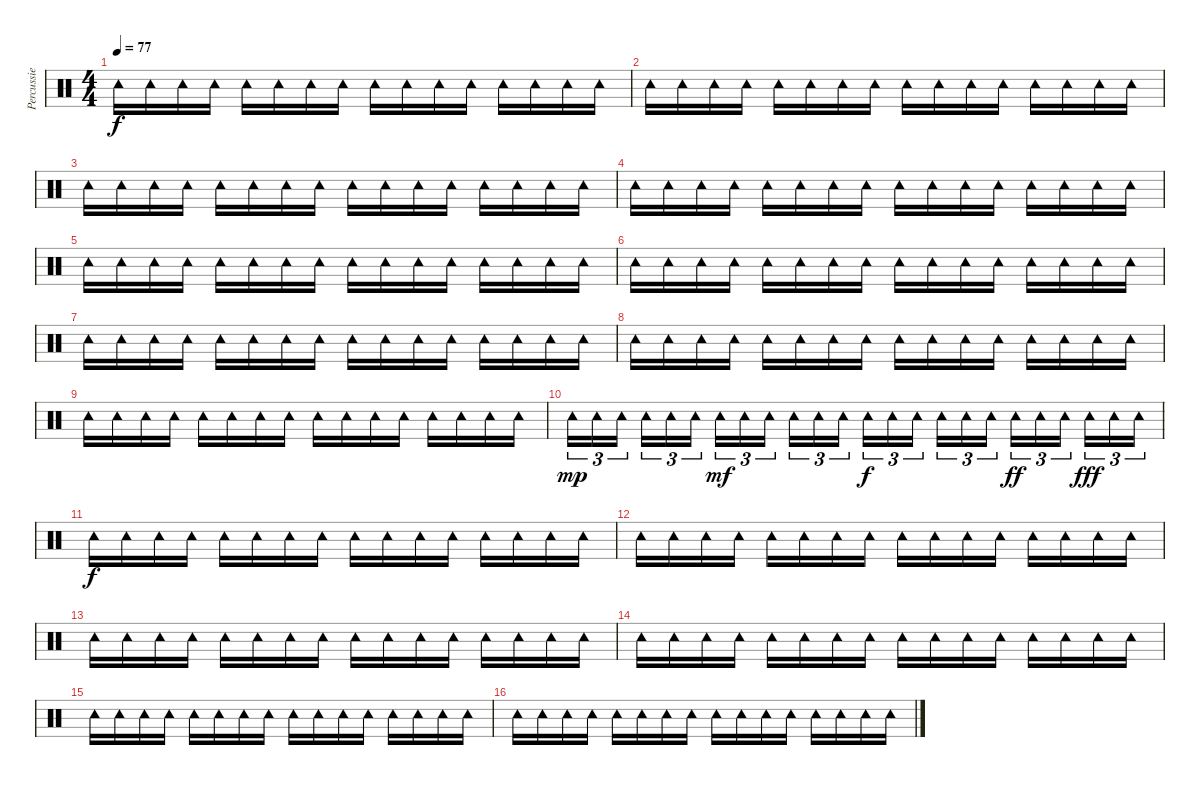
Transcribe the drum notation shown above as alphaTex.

\track ("Percussie" "Percussie") {instrument percussion}
\staff {score}
\articulation defaults
\ts (4 4)
\tempo 77
\clef neutral
\ks c "Tambourine (hit)".16{dy f} "Tambourine (hit)".16 "Tambourine (hit)".16 "Tambourine (hit)".16 "Tambourine (hit)".16 "Tambourine (hit)".16 "Tambourine (hit)".16 "Tambourine (hit)".16 "Tambourine (hit)".16 "Tambourine (hit)".16 "Tambourine (hit)".16 "Tambourine (hit)".16 "Tambourine (hit)".16 "Tambourine (hit)".16 "Tambourine (hit)".16 "Tambourine (hit)".16
|
"Tambourine (hit)".16 "Tambourine (hit)".16 "Tambourine (hit)".16 "Tambourine (hit)".16 "Tambourine (hit)".16 "Tambourine (hit)".16 "Tambourine (hit)".16 "Tambourine (hit)".16 "Tambourine (hit)".16 "Tambourine (hit)".16 "Tambourine (hit)".16 "Tambourine (hit)".16 "Tambourine (hit)".16 "Tambourine (hit)".16 "Tambourine (hit)".16 "Tambourine (hit)".16 |
"Tambourine (hit)".16 "Tambourine (hit)".16 "Tambourine (hit)".16 "Tambourine (hit)".16 "Tambourine (hit)".16 "Tambourine (hit)".16 "Tambourine (hit)".16 "Tambourine (hit)".16 "Tambourine (hit)".16 "Tambourine (hit)".16 "Tambourine (hit)".16 "Tambourine (hit)".16 "Tambourine (hit)".16 "Tambourine (hit)".16 "Tambourine (hit)".16 "Tambourine (hit)".16 |
"Tambourine (hit)".16 "Tambourine (hit)".16 "Tambourine (hit)".16 "Tambourine (hit)".16 "Tambourine (hit)".16 "Tambourine (hit)".16 "Tambourine (hit)".16 "Tambourine (hit)".16 "Tambourine (hit)".16 "Tambourine (hit)".16 "Tambourine (hit)".16 "Tambourine (hit)".16 "Tambourine (hit)".16 "Tambourine (hit)".16 "Tambourine (hit)".16 "Tambourine (hit)".16 |
"Tambourine (hit)".16 "Tambourine (hit)".16 "Tambourine (hit)".16 "Tambourine (hit)".16 "Tambourine (hit)".16 "Tambourine (hit)".16 "Tambourine (hit)".16 "Tambourine (hit)".16 "Tambourine (hit)".16 "Tambourine (hit)".16 "Tambourine (hit)".16 "Tambourine (hit)".16 "Tambourine (hit)".16 "Tambourine (hit)".16 "Tambourine (hit)".16 "Tambourine (hit)".16 |
"Tambourine (hit)".16 "Tambourine (hit)".16 "Tambourine (hit)".16 "Tambourine (hit)".16 "Tambourine (hit)".16 "Tambourine (hit)".16 "Tambourine (hit)".16 "Tambourine (hit)".16 "Tambourine (hit)".16 "Tambourine (hit)".16 "Tambourine (hit)".16 "Tambourine (hit)".16 "Tambourine (hit)".16 "Tambourine (hit)".16 "Tambourine (hit)".16 "Tambourine (hit)".16 |
"Tambourine (hit)".16 "Tambourine (hit)".16 "Tambourine (hit)".16 "Tambourine (hit)".16 "Tambourine (hit)".16 "Tambourine (hit)".16 "Tambourine (hit)".16 "Tambourine (hit)".16 "Tambourine (hit)".16 "Tambourine (hit)".16 "Tambourine (hit)".16 "Tambourine (hit)".16 "Tambourine (hit)".16 "Tambourine (hit)".16 "Tambourine (hit)".16 "Tambourine (hit)".16 |
"Tambourine (hit)".16 "Tambourine (hit)".16 "Tambourine (hit)".16 "Tambourine (hit)".16 "Tambourine (hit)".16 "Tambourine (hit)".16 "Tambourine (hit)".16 "Tambourine (hit)".16 "Tambourine (hit)".16 "Tambourine (hit)".16 "Tambourine (hit)".16 "Tambourine (hit)".16 "Tambourine (hit)".16 "Tambourine (hit)".16 "Tambourine (hit)".16 "Tambourine (hit)".16 |
"Tambourine (hit)".16 "Tambourine (hit)".16 "Tambourine (hit)".16 "Tambourine (hit)".16 "Tambourine (hit)".16 "Tambourine (hit)".16 "Tambourine (hit)".16 "Tambourine (hit)".16 "Tambourine (hit)".16 "Tambourine (hit)".16 "Tambourine (hit)".16 "Tambourine (hit)".16 "Tambourine (hit)".16 "Tambourine (hit)".16 "Tambourine (hit)".16 "Tambourine (hit)".16 |
"Tambourine (hit)".16{tu (3 2) dy mp} "Tambourine (hit)".16{tu (3 2)} "Tambourine (hit)".16{tu (3 2) beam splitsecondary} "Tambourine (hit)".16{tu (3 2)} "Tambourine (hit)".16{tu (3 2)} "Tambourine (hit)".16{tu (3 2)} "Tambourine (hit)".16{tu (3 2) dy mf} "Tambourine (hit)".16{tu (3 2)} "Tambourine (hit)".16{tu (3 2) beam splitsecondary} "Tambourine (hit)".16{tu (3 2)} "Tambourine (hit)".16{tu (3 2)} "Tambourine (hit)".16{tu (3 2)} "Tambourine (hit)".16{tu (3 2) dy f} "Tambourine (hit)".16{tu (3 2)} "Tambourine (hit)".16{tu (3 2) beam splitsecondary} "Tambourine (hit)".16{tu (3 2)} "Tambourine (hit)".16{tu (3 2)} "Tambourine (hit)".16{tu (3 2)} "Tambourine (hit)".16{tu (3 2) dy ff} "Tambourine (hit)".16{tu (3 2)} "Tambourine (hit)".16{tu (3 2) beam splitsecondary} "Tambourine (hit)".16{tu (3 2) dy fff} "Tambourine (hit)".16{tu (3 2)} "Tambourine (hit)".16{tu (3 2)} |
"Tambourine (hit)".16{dy f} "Tambourine (hit)".16 "Tambourine (hit)".16 "Tambourine (hit)".16 "Tambourine (hit)".16 "Tambourine (hit)".16 "Tambourine (hit)".16 "Tambourine (hit)".16 "Tambourine (hit)".16 "Tambourine (hit)".16 "Tambourine (hit)".16 "Tambourine (hit)".16 "Tambourine (hit)".16 "Tambourine (hit)".16 "Tambourine (hit)".16 "Tambourine (hit)".16 |
"Tambourine (hit)".16 "Tambourine (hit)".16 "Tambourine (hit)".16 "Tambourine (hit)".16 "Tambourine (hit)".16 "Tambourine (hit)".16 "Tambourine (hit)".16 "Tambourine (hit)".16 "Tambourine (hit)".16 "Tambourine (hit)".16 "Tambourine (hit)".16 "Tambourine (hit)".16 "Tambourine (hit)".16 "Tambourine (hit)".16 "Tambourine (hit)".16 "Tambourine (hit)".16 |
"Tambourine (hit)".16 "Tambourine (hit)".16 "Tambourine (hit)".16 "Tambourine (hit)".16 "Tambourine (hit)".16 "Tambourine (hit)".16 "Tambourine (hit)".16 "Tambourine (hit)".16 "Tambourine (hit)".16 "Tambourine (hit)".16 "Tambourine (hit)".16 "Tambourine (hit)".16 "Tambourine (hit)".16 "Tambourine (hit)".16 "Tambourine (hit)".16 "Tambourine (hit)".16 |
"Tambourine (hit)".16 "Tambourine (hit)".16 "Tambourine (hit)".16 "Tambourine (hit)".16 "Tambourine (hit)".16 "Tambourine (hit)".16 "Tambourine (hit)".16 "Tambourine (hit)".16 "Tambourine (hit)".16 "Tambourine (hit)".16 "Tambourine (hit)".16 "Tambourine (hit)".16 "Tambourine (hit)".16 "Tambourine (hit)".16 "Tambourine (hit)".16 "Tambourine (hit)".16 |
"Tambourine (hit)".16 "Tambourine (hit)".16 "Tambourine (hit)".16 "Tambourine (hit)".16 "Tambourine (hit)".16 "Tambourine (hit)".16 "Tambourine (hit)".16 "Tambourine (hit)".16 "Tambourine (hit)".16 "Tambourine (hit)".16 "Tambourine (hit)".16 "Tambourine (hit)".16 "Tambourine (hit)".16 "Tambourine (hit)".16 "Tambourine (hit)".16 "Tambourine (hit)".16 |
"Tambourine (hit)".16 "Tambourine (hit)".16 "Tambourine (hit)".16 "Tambourine (hit)".16 "Tambourine (hit)".16 "Tambourine (hit)".16 "Tambourine (hit)".16 "Tambourine (hit)".16 "Tambourine (hit)".16 "Tambourine (hit)".16 "Tambourine (hit)".16 "Tambourine (hit)".16 "Tambourine (hit)".16 "Tambourine (hit)".16 "Tambourine (hit)".16 "Tambourine (hit)".16
